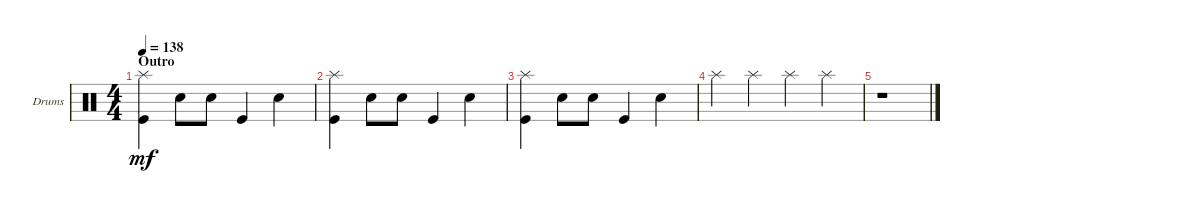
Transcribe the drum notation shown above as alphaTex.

\defaultSystemsLayout 4
\bracketExtendMode groupsimilarinstruments
\firstSystemTrackNameOrientation horizontal
\otherSystemsTrackNameOrientation horizontal
\track ("Drumkit" "Drums") {instrument percussion}
\staff {score}
\articulation defaults
\ts (4 4)
\section ("" "Outro")
\tempo 138
\clef neutral
\ks c
("Kick (hit)" "Splash (hit)").4{dy mf} "Snare (hit) 2".8 "Snare (hit) 2".8 "Kick (hit)".4 "Snare (hit) 2".4 |
("Kick (hit)" "Splash (hit)").4 "Snare (hit) 2".8 "Snare (hit) 2".8 "Kick (hit)".4 "Snare (hit) 2".4 |
("Kick (hit)" "Splash (hit)").4 "Snare (hit) 2".8 "Snare (hit) 2".8 "Kick (hit)".4 "Snare (hit) 2".4 |
"Splash (hit)".4 "Splash (hit)".4 "Splash (hit)".4 "Splash (hit)".4 |
r.1
